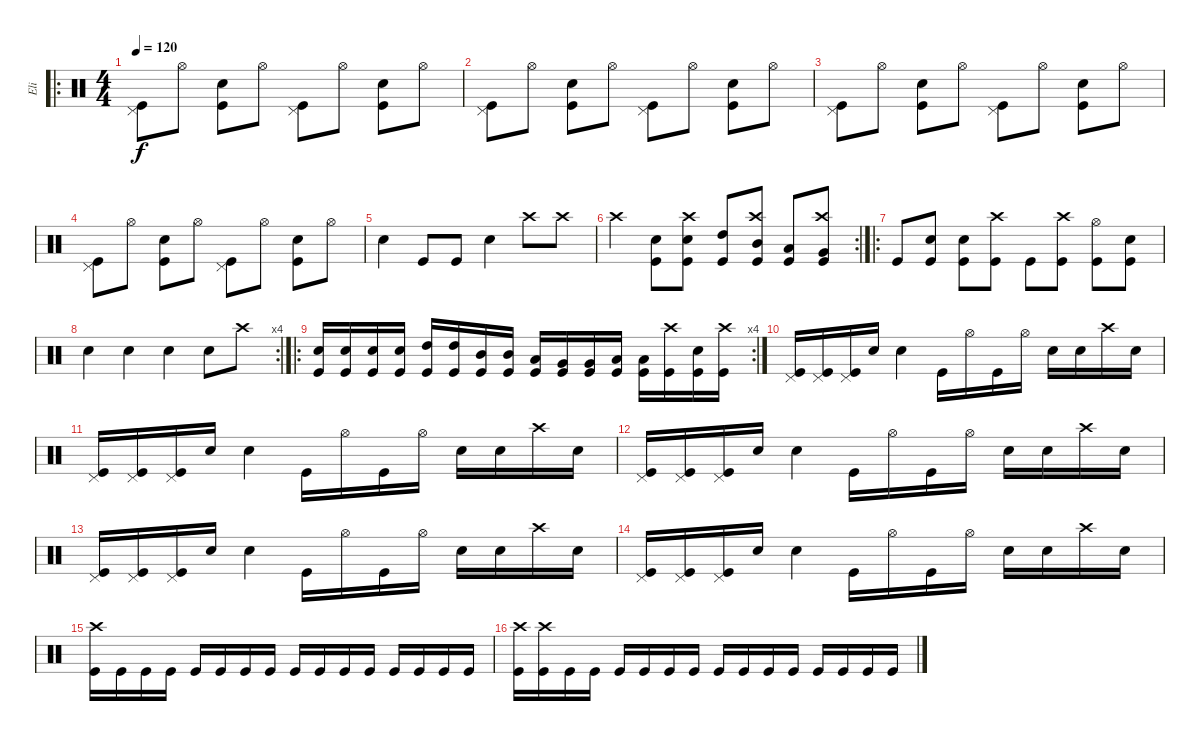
\track ("Eli" "Eli") {instrument percussion}
\staff {score}
\articulation defaults
\ro
\ts (4 4)
\tempo 120
\clef neutral
\ks c
("Pedal Hi-Hat (hit)" "Kick (hit)").8{dy f} "Hi-Hat (open)".8 ("Electric Snare (hit)" "Kick (hit)").8 "Hi-Hat (open)".8 ("Pedal Hi-Hat (hit)" "Kick (hit)").8 "Hi-Hat (open)".8 ("Electric Snare (hit)" "Kick (hit)").8 "Hi-Hat (open)".8 |
("Pedal Hi-Hat (hit)" "Kick (hit)").8 "Hi-Hat (open)".8 ("Electric Snare (hit)" "Kick (hit)").8 "Hi-Hat (open)".8 ("Pedal Hi-Hat (hit)" "Kick (hit)").8 "Hi-Hat (open)".8 ("Electric Snare (hit)" "Kick (hit)").8 "Hi-Hat (open)".8 |
("Pedal Hi-Hat (hit)" "Kick (hit)").8 "Hi-Hat (open)".8 ("Electric Snare (hit)" "Kick (hit)").8 "Hi-Hat (open)".8 ("Pedal Hi-Hat (hit)" "Kick (hit)").8 "Hi-Hat (open)".8 ("Electric Snare (hit)" "Kick (hit)").8 "Hi-Hat (open)".8 |
("Pedal Hi-Hat (hit)" "Kick (hit)").8 "Hi-Hat (open)".8 ("Electric Snare (hit)" "Kick (hit)").8 "Hi-Hat (open)".8 ("Pedal Hi-Hat (hit)" "Kick (hit)").8 "Hi-Hat (open)".8 ("Electric Snare (hit)" "Kick (hit)").8 "Hi-Hat (open)".8 |
"Electric Snare (hit)".4 "Kick (hit)".8 "Kick (hit)".8 "Electric Snare (hit)".4 "Crash high (hit)".8 "Crash high (hit)".8 |
\rc 2 "Crash high (hit)".4
("Kick (hit)" "Electric Snare (hit)").8 ("Kick (hit)" "Electric Snare (hit)" "Crash high (hit)").8 ("Kick (hit)" "High Tom (hit)").8 ("Kick (hit)" "Mid Tom (hit)" "Crash high (hit)").8 ("Kick (hit)" "Low Tom (hit)").8 ("Kick (hit)" "Very Low Tom (hit)" "Crash high (hit)").8 |
\ro "Kick (hit)".8
("Electric Snare (hit)" "Kick (hit)").8 ("Electric Snare (hit)" "Kick (hit)").8 ("Crash high (hit)" "Kick (hit)").8 "Kick (hit)".8 ("Crash high (hit)" "Kick (hit)").8 ("Hi-Hat (open)" "Kick (hit)").8 ("Electric Snare (hit)" "Kick (hit)").8 |
\rc 4 "Electric Snare (hit)".4 "Electric Snare (hit)".4 "Electric Snare (hit)".4 "Electric Snare (hit)".8 "Crash high (hit)".8
|
\ro
\rc 4
("Kick (hit)" "Electric Snare (hit)").16 ("Kick (hit)" "Electric Snare (hit)").16 ("Kick (hit)" "Electric Snare (hit)").16 ("Kick (hit)" "Electric Snare (hit)").16 ("Kick (hit)" "High Tom (hit)").16 ("Kick (hit)" "High Tom (hit)").16 ("Kick (hit)" "Mid Tom (hit)").16 ("Kick (hit)" "Mid Tom (hit)").16 ("Kick (hit)" "Low Tom (hit)").16 ("Kick (hit)" "Very Low Tom (hit)").16 ("Kick (hit)" "Very Low Tom (hit)").16 ("Kick (hit)" "Low Tom (hit)").16 ("Kick (hit)" "Low Tom (hit)").16 ("Kick (hit)" "Crash high (hit)").16 ("Kick (hit)" "Electric Snare (hit)").16 ("Kick (hit)" "Crash high (hit)").16 |
("Pedal Hi-Hat (hit)" "Kick (hit)").16 ("Pedal Hi-Hat (hit)" "Kick (hit)").16 ("Pedal Hi-Hat (hit)" "Kick (hit)").16 "Electric Snare (hit)".16 "Electric Snare (hit)".4 "Kick (hit)".16 "Hi-Hat (open)".16 "Kick (hit)".16 "Hi-Hat (open)".16 "Electric Snare (hit)".16 "Electric Snare (hit)".16 "Crash high (hit)".16 "Electric Snare (hit)".16 |
("Pedal Hi-Hat (hit)" "Kick (hit)").16 ("Pedal Hi-Hat (hit)" "Kick (hit)").16 ("Pedal Hi-Hat (hit)" "Kick (hit)").16 "Electric Snare (hit)".16 "Electric Snare (hit)".4 "Kick (hit)".16 "Hi-Hat (open)".16 "Kick (hit)".16 "Hi-Hat (open)".16 "Electric Snare (hit)".16 "Electric Snare (hit)".16 "Crash high (hit)".16 "Electric Snare (hit)".16 |
("Pedal Hi-Hat (hit)" "Kick (hit)").16 ("Pedal Hi-Hat (hit)" "Kick (hit)").16 ("Pedal Hi-Hat (hit)" "Kick (hit)").16 "Electric Snare (hit)".16 "Electric Snare (hit)".4 "Kick (hit)".16 "Hi-Hat (open)".16 "Kick (hit)".16 "Hi-Hat (open)".16 "Electric Snare (hit)".16 "Electric Snare (hit)".16 "Crash high (hit)".16 "Electric Snare (hit)".16 |
("Pedal Hi-Hat (hit)" "Kick (hit)").16 ("Pedal Hi-Hat (hit)" "Kick (hit)").16 ("Pedal Hi-Hat (hit)" "Kick (hit)").16 "Electric Snare (hit)".16 "Electric Snare (hit)".4 "Kick (hit)".16 "Hi-Hat (open)".16 "Kick (hit)".16 "Hi-Hat (open)".16 "Electric Snare (hit)".16 "Electric Snare (hit)".16 "Crash high (hit)".16 "Electric Snare (hit)".16 |
("Pedal Hi-Hat (hit)" "Kick (hit)").16 ("Pedal Hi-Hat (hit)" "Kick (hit)").16 ("Pedal Hi-Hat (hit)" "Kick (hit)").16 "Electric Snare (hit)".16 "Electric Snare (hit)".4 "Kick (hit)".16 "Hi-Hat (open)".16 "Kick (hit)".16 "Hi-Hat (open)".16 "Electric Snare (hit)".16 "Electric Snare (hit)".16 "Crash high (hit)".16 "Electric Snare (hit)".16 |
("Crash high (hit)" "Kick (hit)").16 "Kick (hit)".16 "Kick (hit)".16 "Kick (hit)".16 "Kick (hit)".16 "Kick (hit)".16 "Kick (hit)".16 "Kick (hit)".16 "Kick (hit)".16 "Kick (hit)".16 "Kick (hit)".16 "Kick (hit)".16 "Kick (hit)".16 "Kick (hit)".16 "Kick (hit)".16 "Kick (hit)".16 |
("Crash high (hit)" "Kick (hit)").16 ("Crash high (hit)" "Kick (hit)").16 "Kick (hit)".16 "Kick (hit)".16 "Kick (hit)".16 "Kick (hit)".16 "Kick (hit)".16 "Kick (hit)".16 "Kick (hit)".16 "Kick (hit)".16 "Kick (hit)".16 "Kick (hit)".16 "Kick (hit)".16 "Kick (hit)".16 "Kick (hit)".16 "Kick (hit)".16
